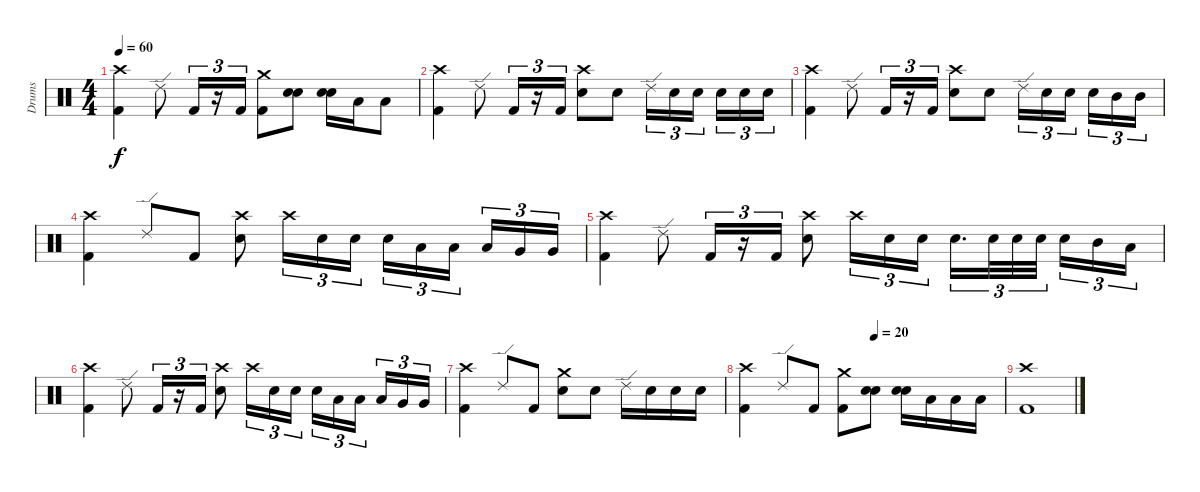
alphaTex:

\track ("Drums" "Drums") {instrument percussion}
\staff {score}
\articulation defaults
\ts (4 4)
\tempo 60
\clef neutral
\ks c
("Crash high (hit)" "Kick (hit) 2").4{dy f} "Ride (edge) 2".8 "Kick (hit) 2".16{tu (3 2)} r.16{tu (3 2)} "Kick (hit) 2".16{tu (3 2)} ("Crash medium (hit)" "Kick (hit) 2").8 ("Electric Snare (hit)" "Electric Snare (hit)").8{bu 60} ("Electric Snare (hit)" "Electric Snare (hit)").16{bu 60} "Low Tom (hit)".16 "Low Tom (hit)".8 |
("Crash high (hit)" "Kick (hit) 2").4 "Ride (edge) 2".8 "Kick (hit) 2".16{tu (3 2)} r.16{tu (3 2)} "Kick (hit) 2".16{tu (3 2)} ("Crash high (hit)" "Electric Snare (hit)").8 "Electric Snare (hit)".8 "Ride (edge) 2".16{tu (3 2)} "Electric Snare (hit)".16{tu (3 2)} "Electric Snare (hit)".16{tu (3 2) beam splitsecondary} "Electric Snare (hit)".16{tu (3 2)} "Electric Snare (hit)".16{tu (3 2)} "Electric Snare (hit)".16{tu (3 2)} |
("Crash high (hit)" "Kick (hit) 2").4 "Ride (edge) 2".8 "Kick (hit) 2".16{tu (3 2)} r.16{tu (3 2)} "Kick (hit) 2".16{tu (3 2)} ("Crash high (hit)" "Electric Snare (hit)").8 "Electric Snare (hit)".8 "Ride (edge) 2".16{tu (3 2)} "Electric Snare (hit)".16{tu (3 2)} "Electric Snare (hit)".16{tu (3 2) beam splitsecondary} "Electric Snare (hit)".16{tu (3 2)} "Mid Tom (hit)".16{tu (3 2)} "Mid Tom (hit)".16{tu (3 2)} |
("Crash high (hit)" "Kick (hit) 2").4 "Ride (edge) 2".8 "Kick (hit) 2".8 ("Crash high (hit)" "Electric Snare (hit)").8 "Crash high (hit)".16{tu (3 2)} "Electric Snare (hit)".16{tu (3 2)} "Electric Snare (hit)".16{tu (3 2)} "Electric Snare (hit)".16{tu (3 2)} "Low Tom (hit)".16{tu (3 2)} "Low Tom (hit)".16{tu (3 2) beam splitsecondary} "Low Tom (hit)".16{tu (3 2)} "Very Low Tom (hit)".16{tu (3 2)} "Very Low Tom (hit)".16{tu (3 2)} |
("Crash high (hit)" "Kick (hit) 2").4 "Ride (edge) 2".8 "Kick (hit) 2".16{tu (3 2)} r.16{tu (3 2)} "Kick (hit) 2".16{tu (3 2)} ("Crash high (hit)" "Electric Snare (hit)").8 "Crash high (hit)".16{tu (3 2)} "Electric Snare (hit)".16{tu (3 2)} "Electric Snare (hit)".16{tu (3 2)} "Electric Snare (hit)".16{d tu (3 2)} "Electric Snare (hit)".32{tu (3 2)} "Electric Snare (hit)".32{tu (3 2)} "Electric Snare (hit)".32{tu (3 2) beam splitsecondary} "Electric Snare (hit)".16{tu (3 2)} "Mid Tom (hit)".16{tu (3 2)} "Low Tom (hit)".16{tu (3 2)} |
("Crash high (hit)" "Kick (hit) 2").4 "Ride (edge) 2".8 "Kick (hit) 2".16{tu (3 2)} r.16{tu (3 2)} "Kick (hit) 2".16{tu (3 2)} ("Crash high (hit)" "Electric Snare (hit)").8 "Crash high (hit)".16{tu (3 2)} "Electric Snare (hit)".16{tu (3 2)} "Electric Snare (hit)".16{tu (3 2)} "Electric Snare (hit)".16{tu (3 2)} "Low Tom (hit)".16{tu (3 2)} "Low Tom (hit)".16{tu (3 2) beam splitsecondary} "Low Tom (hit)".16{tu (3 2)} "Very Low Tom (hit)".16{tu (3 2)} "Very Low Tom (hit)".16{tu (3 2)} |
("Crash high (hit)" "Kick (hit) 2").4 "Ride (edge) 2".8 "Kick (hit) 2".8 ("Crash medium (hit)" "Electric Snare (hit)").8 "Electric Snare (hit)".8 "Ride (edge) 2".16 "Electric Snare (hit)".16 "Electric Snare (hit)".16 "Electric Snare (hit)".16 |
\tempo (20 0.5)
("Crash high (hit)" "Kick (hit) 2").4 "Ride (edge) 2".8 "Kick (hit) 2".8 ("Crash medium (hit)" "Kick (hit) 2").8 ("Electric Snare (hit)" "Electric Snare (hit)").8{bu 60} ("Electric Snare (hit)" "Electric Snare (hit)").16{bu 60} "Low Tom (hit)".16 "Low Tom (hit)".16 "Low Tom (hit)".16 |
("Crash high (hit)" "Kick (hit) 2").1
